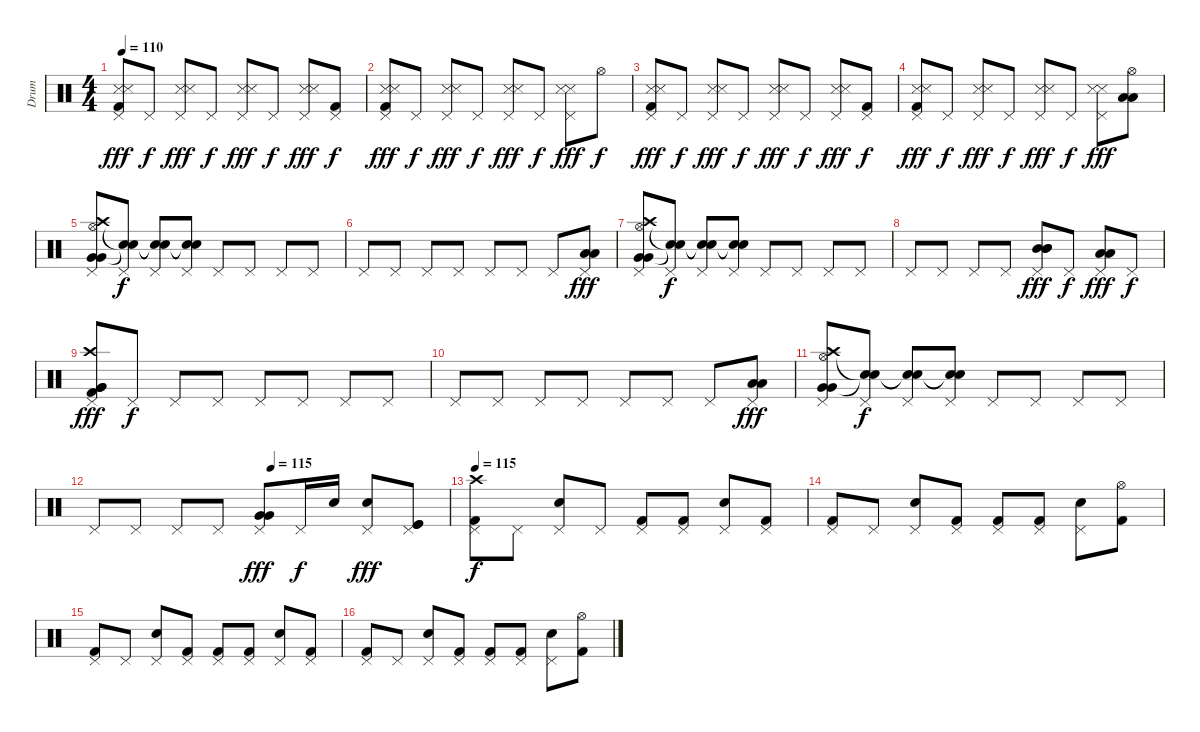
\track ("Drum" "Drum") {instrument percussion}
\staff {score}
\articulation defaults
\ts (4 4)
\tempo 110
\clef neutral
\ks c
("Pedal Hi-Hat (hit)" "Snare (side stick) 3" "Metronome (hit)" "Kick (hit) 2").8{dy fff} "Pedal Hi-Hat (hit)".8{dy f} ("Pedal Hi-Hat (hit)" "Snare (side stick) 3" "Metronome (hit)").8{dy fff} "Pedal Hi-Hat (hit)".8{dy f} ("Pedal Hi-Hat (hit)" "Snare (side stick) 3" "Metronome (hit)").8{dy fff} "Pedal Hi-Hat (hit)".8{dy f} ("Pedal Hi-Hat (hit)" "Snare (side stick) 3" "Metronome (hit)").8{dy fff} ("Pedal Hi-Hat (hit)" "Kick (hit) 2").8{dy f} |
("Pedal Hi-Hat (hit)" "Snare (side stick) 3" "Metronome (hit)" "Kick (hit) 2").8{dy fff} "Pedal Hi-Hat (hit)".8{dy f} ("Pedal Hi-Hat (hit)" "Snare (side stick) 3" "Metronome (hit)").8{dy fff} "Pedal Hi-Hat (hit)".8{dy f} ("Pedal Hi-Hat (hit)" "Snare (side stick) 3" "Metronome (hit)").8{dy fff} "Pedal Hi-Hat (hit)".8{dy f} ("Pedal Hi-Hat (hit)" "Snare (side stick) 3" "Metronome (hit)").8{dy fff} "Hi-Hat (open)".8{dy f} |
("Pedal Hi-Hat (hit)" "Snare (side stick) 3" "Metronome (hit)" "Kick (hit) 2").8{dy fff} "Pedal Hi-Hat (hit)".8{dy f} ("Pedal Hi-Hat (hit)" "Snare (side stick) 3" "Metronome (hit)").8{dy fff} "Pedal Hi-Hat (hit)".8{dy f} ("Pedal Hi-Hat (hit)" "Snare (side stick) 3" "Metronome (hit)").8{dy fff} "Pedal Hi-Hat (hit)".8{dy f} ("Pedal Hi-Hat (hit)" "Snare (side stick) 3" "Metronome (hit)").8{dy fff} ("Pedal Hi-Hat (hit)" "Kick (hit) 2").8{dy f} |
("Pedal Hi-Hat (hit)" "Snare (side stick) 3" "Metronome (hit)" "Kick (hit) 2").8{dy fff} "Pedal Hi-Hat (hit)".8{dy f} ("Pedal Hi-Hat (hit)" "Snare (side stick) 3" "Metronome (hit)").8{dy fff} "Pedal Hi-Hat (hit)".8{dy f} ("Pedal Hi-Hat (hit)" "Snare (side stick) 3" "Metronome (hit)").8{dy fff} "Pedal Hi-Hat (hit)".8{dy f} ("Pedal Hi-Hat (hit)" "Snare (side stick) 3" "Metronome (hit)").8{dy fff} ("Hi-Hat (open)" "Low Tom (hit)" "Low Tom (hit)").8 |
("Pedal Hi-Hat (hit)" "Crash high (hit)" "Very Low Tom (hit)" "Hi-Hat (open)" "Very Low Tom (hit)").8 ("Pedal Hi-Hat (hit)" "Snare (hit)"{t} "Snare (hit)"{t}).8{dy f} ("Pedal Hi-Hat (hit)" "Snare (hit)"{t} "Snare (hit)"{t}).8 ("Pedal Hi-Hat (hit)" "Snare (hit)"{t} "Snare (hit)"{t}).8 "Pedal Hi-Hat (hit)".8 "Pedal Hi-Hat (hit)".8 "Pedal Hi-Hat (hit)".8 "Pedal Hi-Hat (hit)".8 |
"Pedal Hi-Hat (hit)".8 "Pedal Hi-Hat (hit)".8 "Pedal Hi-Hat (hit)".8 "Pedal Hi-Hat (hit)".8 "Pedal Hi-Hat (hit)".8 "Pedal Hi-Hat (hit)".8 "Pedal Hi-Hat (hit)".8 ("Pedal Hi-Hat (hit)" "Low Tom (hit)" "Low Tom (hit)").8{dy fff} |
("Pedal Hi-Hat (hit)" "Crash high (hit)" "Very Low Tom (hit)" "Hi-Hat (open)" "Very Low Tom (hit)").8 ("Pedal Hi-Hat (hit)" "Snare (hit)"{t} "Snare (hit)"{t}).8{dy f} ("Pedal Hi-Hat (hit)" "Snare (hit)"{t} "Snare (hit)"{t}).8 ("Pedal Hi-Hat (hit)" "Snare (hit)"{t} "Snare (hit)"{t}).8 "Pedal Hi-Hat (hit)".8 "Pedal Hi-Hat (hit)".8 "Pedal Hi-Hat (hit)".8 "Pedal Hi-Hat (hit)".8 |
"Pedal Hi-Hat (hit)".8 "Pedal Hi-Hat (hit)".8 "Pedal Hi-Hat (hit)".8 "Pedal Hi-Hat (hit)".8 ("Pedal Hi-Hat (hit)" "Mid Tom (hit)" "Mid Tom (hit)" "Mid Tom (hit)").8{dy fff} "Pedal Hi-Hat (hit)".8{dy f} ("Pedal Hi-Hat (hit)" "Low Tom (hit)" "Low Tom (hit)").8{dy fff} "Pedal Hi-Hat (hit)".8{dy f} |
("Pedal Hi-Hat (hit)" "Crash high (hit)" "Very Low Tom (hit)" "Very Low Tom (hit)" "Kick (hit) 2").8{dy fff} "Pedal Hi-Hat (hit)".8{dy f} "Pedal Hi-Hat (hit)".8 "Pedal Hi-Hat (hit)".8 "Pedal Hi-Hat (hit)".8 "Pedal Hi-Hat (hit)".8 "Pedal Hi-Hat (hit)".8 "Pedal Hi-Hat (hit)".8 |
"Pedal Hi-Hat (hit)".8 "Pedal Hi-Hat (hit)".8 "Pedal Hi-Hat (hit)".8 "Pedal Hi-Hat (hit)".8 "Pedal Hi-Hat (hit)".8 "Pedal Hi-Hat (hit)".8 "Pedal Hi-Hat (hit)".8 ("Pedal Hi-Hat (hit)" "Low Tom (hit)" "Low Tom (hit)").8{dy fff} |
("Pedal Hi-Hat (hit)" "Crash high (hit)" "Very Low Tom (hit)" "Hi-Hat (open)" "Very Low Tom (hit)").8 ("Pedal Hi-Hat (hit)" "Snare (hit)"{t} "Snare (hit)"{t}).8{dy f} ("Pedal Hi-Hat (hit)" "Snare (hit)"{t} "Snare (hit)"{t}).8 ("Pedal Hi-Hat (hit)" "Snare (hit)"{t} "Snare (hit)"{t}).8 "Pedal Hi-Hat (hit)".8 "Pedal Hi-Hat (hit)".8 "Pedal Hi-Hat (hit)".8 "Pedal Hi-Hat (hit)".8 |
\tempo (115 0.5)
"Pedal Hi-Hat (hit)".8 "Pedal Hi-Hat (hit)".8 "Pedal Hi-Hat (hit)".8 "Pedal Hi-Hat (hit)".8 ("Pedal Hi-Hat (hit)" "Very Low Tom (hit)" "Very Low Tom (hit)").8{dy fff} "Pedal Hi-Hat (hit)".16{dy f} "Electric Snare (hit)".16 ("Pedal Hi-Hat (hit)" "Electric Snare (hit)").8{dy fff} ("Pedal Hi-Hat (hit)" "Kick (hit)" "Kick (hit)").8 |
\tempo 115
("Pedal Hi-Hat (hit)" "Crash high (hit)" "Kick (hit) 2").8{dy f} "Pedal Hi-Hat (hit)".8 ("Pedal Hi-Hat (hit)" "Electric Snare (hit)").8 "Pedal Hi-Hat (hit)".8 ("Pedal Hi-Hat (hit)" "Kick (hit) 2").8 ("Pedal Hi-Hat (hit)" "Kick (hit) 2").8 ("Pedal Hi-Hat (hit)" "Electric Snare (hit)").8 ("Pedal Hi-Hat (hit)" "Kick (hit) 2").8 |
("Pedal Hi-Hat (hit)" "Kick (hit) 2").8 "Pedal Hi-Hat (hit)".8 ("Pedal Hi-Hat (hit)" "Electric Snare (hit)").8 ("Pedal Hi-Hat (hit)" "Kick (hit) 2").8 ("Pedal Hi-Hat (hit)" "Kick (hit) 2").8 ("Pedal Hi-Hat (hit)" "Kick (hit) 2").8 ("Pedal Hi-Hat (hit)" "Electric Snare (hit)").8 ("Hi-Hat (open)" "Kick (hit) 2").8 |
("Pedal Hi-Hat (hit)" "Kick (hit) 2").8 "Pedal Hi-Hat (hit)".8 ("Pedal Hi-Hat (hit)" "Electric Snare (hit)").8 ("Pedal Hi-Hat (hit)" "Kick (hit) 2").8 ("Pedal Hi-Hat (hit)" "Kick (hit) 2").8 ("Pedal Hi-Hat (hit)" "Kick (hit) 2").8 ("Pedal Hi-Hat (hit)" "Electric Snare (hit)").8 ("Pedal Hi-Hat (hit)" "Kick (hit) 2").8 |
("Pedal Hi-Hat (hit)" "Kick (hit) 2").8 "Pedal Hi-Hat (hit)".8 ("Pedal Hi-Hat (hit)" "Electric Snare (hit)").8 ("Pedal Hi-Hat (hit)" "Kick (hit) 2").8 ("Pedal Hi-Hat (hit)" "Kick (hit) 2").8 ("Pedal Hi-Hat (hit)" "Kick (hit) 2").8 ("Pedal Hi-Hat (hit)" "Electric Snare (hit)").8 ("Hi-Hat (open)" "Kick (hit) 2").8
